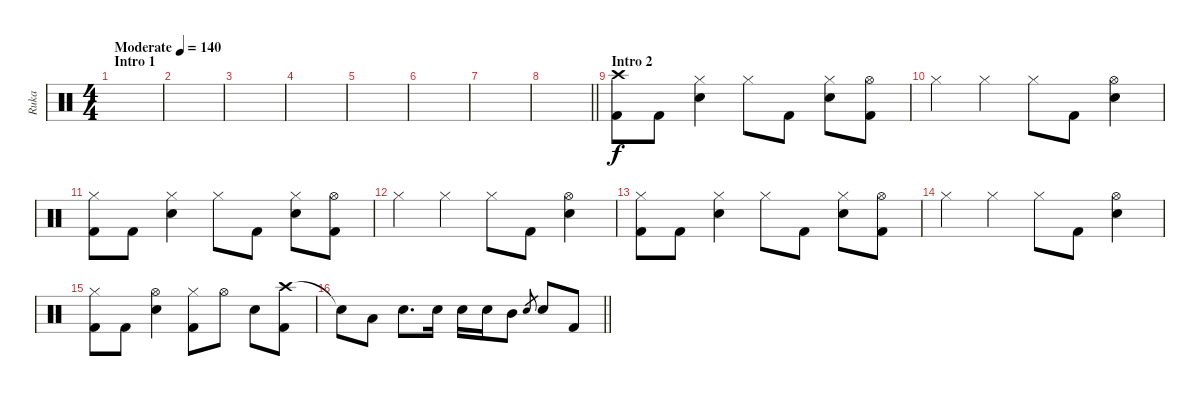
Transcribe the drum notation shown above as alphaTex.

\track ("Ruka" "Ruka") {instrument percussion}
\staff {score}
\articulation defaults
\ts (4 4)
\section ("" "Intro 1")
\tempo (140 "Moderate")
\clef neutral
\ks c
|
|
|
|
|
|
|
\barLineRight lightlight
|
\section ("" "Intro 2")
("Crash high (hit)" "Kick (hit) 2").8 "Kick (hit) 2".8 ("Hi-Hat (closed)" "Snare (hit) 2").4 "Hi-Hat (closed)".8 "Kick (hit) 2".8 ("Hi-Hat (closed)" "Snare (hit) 2").8 ("Hi-Hat (open)" "Kick (hit) 2").8 |
"Hi-Hat (closed)".4 "Hi-Hat (closed)".4 "Hi-Hat (closed)".8 "Kick (hit) 2".8 ("Hi-Hat (open)" "Snare (hit) 2").4 |
("Hi-Hat (closed)" "Kick (hit) 2").8 "Kick (hit) 2".8 ("Hi-Hat (closed)" "Snare (hit) 2").4 "Hi-Hat (closed)".8 "Kick (hit) 2".8 ("Hi-Hat (closed)" "Snare (hit) 2").8 ("Hi-Hat (open)" "Kick (hit) 2").8 |
"Hi-Hat (closed)".4 "Hi-Hat (closed)".4 "Hi-Hat (closed)".8 "Kick (hit) 2".8 ("Hi-Hat (open)" "Snare (hit) 2").4 |
("Hi-Hat (closed)" "Kick (hit) 2").8 "Kick (hit) 2".8 ("Hi-Hat (closed)" "Snare (hit) 2").4 "Hi-Hat (closed)".8 "Kick (hit) 2".8 ("Hi-Hat (closed)" "Snare (hit) 2").8 ("Hi-Hat (open)" "Kick (hit) 2").8 |
"Hi-Hat (closed)".4 "Hi-Hat (closed)".4 "Hi-Hat (closed)".8 "Kick (hit) 2".8 ("Hi-Hat (open)" "Snare (hit) 2").4 |
("Hi-Hat (closed)" "Kick (hit) 2").8 "Kick (hit) 2".8 ("Hi-Hat (open)" "Snare (hit) 2").4 ("Hi-Hat (closed)" "Kick (hit) 2").8 "Hi-Hat (open)".8 "Snare (hit) 2".8 ("Crash high (hit)" "Kick (hit) 2").8 |
\barLineRight lightlight "Snare (hit)"{t}.8 "Low Tom (hit)".8 "Snare (hit) 2".8{d} "Snare (hit) 2".16 "Snare (hit) 2".16 "Snare (hit) 2".16 "Mid Tom (hit)".8 "Snare (hit) 2".8{gr} "Snare (hit) 2".8 "Kick (hit) 2".8
